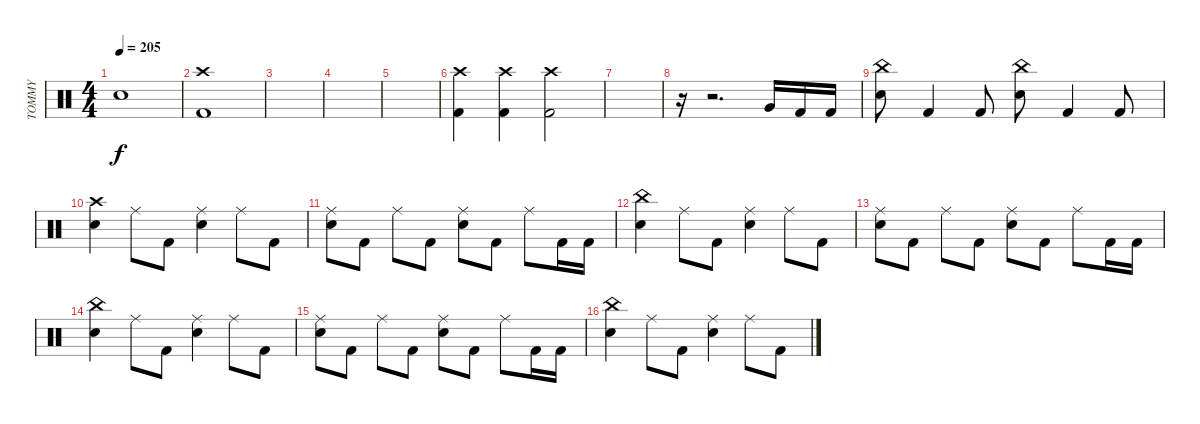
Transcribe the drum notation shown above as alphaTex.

\track ("TOMMY" "TOMMY") {instrument percussion}
\staff {score}
\articulation defaults
\ts (4 4)
\tempo 205
\clef neutral
\ks c "Snare (hit) 2".1{dy f}
|
("Kick (hit) 2" "Crash high (hit)").1 |
|
|
|
("Kick (hit) 2" "Crash high (hit)").4 ("Kick (hit) 2" "Crash high (hit)").4 ("Kick (hit) 2" "Crash high (hit)").2 |
|
r.16 r.2{d} "Very Low Tom (hit)".16 "Kick (hit) 2".16 "Kick (hit) 2".16 |
("Snare (hit) 2" "China (hit)").8 "Kick (hit) 2".4 "Kick (hit) 2".8 ("Snare (hit) 2" "China (hit)").8 "Kick (hit) 2".4 "Kick (hit) 2".8 |
("Snare (hit) 2" "Crash high (hit)").4 "Ride (middle)".8 "Kick (hit) 2".8 ("Snare (hit) 2" "Ride (middle)").4 "Ride (middle)".8 "Kick (hit) 2".8 |
("Snare (hit) 2" "Ride (middle)").8 "Kick (hit) 2".8 "Ride (middle)".8 "Kick (hit) 2".8 ("Snare (hit) 2" "Ride (middle)").8 "Kick (hit) 2".8 "Ride (middle)".8 "Kick (hit) 2".16 "Kick (hit) 2".16 |
("Snare (hit) 2" "China (hit)").4 "Ride (middle)".8 "Kick (hit) 2".8 ("Snare (hit) 2" "Ride (middle)").4 "Ride (middle)".8 "Kick (hit) 2".8 |
("Snare (hit) 2" "Ride (middle)").8 "Kick (hit) 2".8 "Ride (middle)".8 "Kick (hit) 2".8 ("Snare (hit) 2" "Ride (middle)").8 "Kick (hit) 2".8 "Ride (middle)".8 "Kick (hit) 2".16 "Kick (hit) 2".16 |
("Snare (hit) 2" "China (hit)").4 "Ride (middle)".8 "Kick (hit) 2".8 ("Snare (hit) 2" "Ride (middle)").4 "Ride (middle)".8 "Kick (hit) 2".8 |
("Snare (hit) 2" "Ride (middle)").8 "Kick (hit) 2".8 "Ride (middle)".8 "Kick (hit) 2".8 ("Snare (hit) 2" "Ride (middle)").8 "Kick (hit) 2".8 "Ride (middle)".8 "Kick (hit) 2".16 "Kick (hit) 2".16 |
("Snare (hit) 2" "China (hit)").4 "Ride (middle)".8 "Kick (hit) 2".8 ("Snare (hit) 2" "Ride (middle)").4 "Ride (middle)".8 "Kick (hit) 2".8
